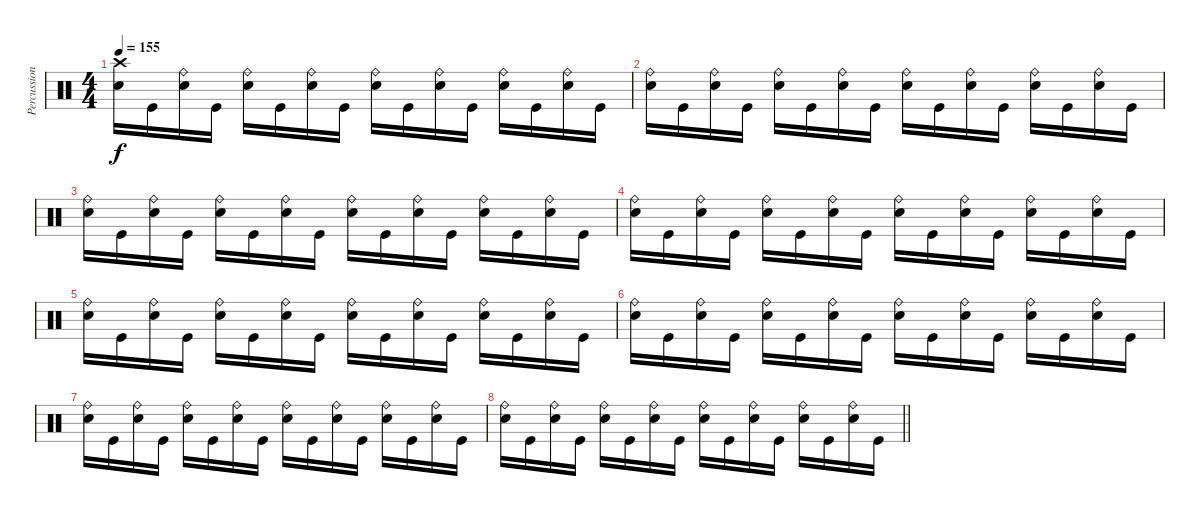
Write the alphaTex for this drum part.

\track ("Percussions" "Percussion") {instrument percussion}
\staff {score}
\articulation defaults
\ts (4 4)
\tempo 155
\clef neutral
\ks c
("Crash high (hit)" "Electric Snare (hit)").16{dy f} "Kick (hit)".16 ("Ride (bell)" "Electric Snare (hit)").16 "Kick (hit)".16 ("Ride (bell)" "Electric Snare (hit)").16 "Kick (hit)".16 ("Ride (bell)" "Electric Snare (hit)").16 "Kick (hit)".16 ("Ride (bell)" "Electric Snare (hit)").16 "Kick (hit)".16 ("Ride (bell)" "Electric Snare (hit)").16 "Kick (hit)".16 ("Ride (bell)" "Electric Snare (hit)").16 "Kick (hit)".16 ("Ride (bell)" "Electric Snare (hit)").16 "Kick (hit)".16 |
("Ride (bell)" "Electric Snare (hit)").16 "Kick (hit)".16 ("Ride (bell)" "Electric Snare (hit)").16 "Kick (hit)".16 ("Ride (bell)" "Electric Snare (hit)").16 "Kick (hit)".16 ("Ride (bell)" "Electric Snare (hit)").16 "Kick (hit)".16 ("Ride (bell)" "Electric Snare (hit)").16 "Kick (hit)".16 ("Ride (bell)" "Electric Snare (hit)").16 "Kick (hit)".16 ("Ride (bell)" "Electric Snare (hit)").16 "Kick (hit)".16 ("Ride (bell)" "Electric Snare (hit)").16 "Kick (hit)".16 |
("Ride (bell)" "Electric Snare (hit)").16 "Kick (hit)".16 ("Ride (bell)" "Electric Snare (hit)").16 "Kick (hit)".16 ("Ride (bell)" "Electric Snare (hit)").16 "Kick (hit)".16 ("Ride (bell)" "Electric Snare (hit)").16 "Kick (hit)".16 ("Ride (bell)" "Electric Snare (hit)").16 "Kick (hit)".16 ("Ride (bell)" "Electric Snare (hit)").16 "Kick (hit)".16 ("Ride (bell)" "Electric Snare (hit)").16 "Kick (hit)".16 ("Ride (bell)" "Electric Snare (hit)").16 "Kick (hit)".16 |
("Ride (bell)" "Electric Snare (hit)").16 "Kick (hit)".16 ("Ride (bell)" "Electric Snare (hit)").16 "Kick (hit)".16 ("Ride (bell)" "Electric Snare (hit)").16 "Kick (hit)".16 ("Ride (bell)" "Electric Snare (hit)").16 "Kick (hit)".16 ("Ride (bell)" "Electric Snare (hit)").16 "Kick (hit)".16 ("Ride (bell)" "Electric Snare (hit)").16 "Kick (hit)".16 ("Ride (bell)" "Electric Snare (hit)").16 "Kick (hit)".16 ("Ride (bell)" "Electric Snare (hit)").16 "Kick (hit)".16 |
("Ride (bell)" "Electric Snare (hit)").16 "Kick (hit)".16 ("Ride (bell)" "Electric Snare (hit)").16 "Kick (hit)".16 ("Ride (bell)" "Electric Snare (hit)").16 "Kick (hit)".16 ("Ride (bell)" "Electric Snare (hit)").16 "Kick (hit)".16 ("Ride (bell)" "Electric Snare (hit)").16 "Kick (hit)".16 ("Ride (bell)" "Electric Snare (hit)").16 "Kick (hit)".16 ("Ride (bell)" "Electric Snare (hit)").16 "Kick (hit)".16 ("Ride (bell)" "Electric Snare (hit)").16 "Kick (hit)".16 |
("Ride (bell)" "Electric Snare (hit)").16 "Kick (hit)".16 ("Ride (bell)" "Electric Snare (hit)").16 "Kick (hit)".16 ("Ride (bell)" "Electric Snare (hit)").16 "Kick (hit)".16 ("Ride (bell)" "Electric Snare (hit)").16 "Kick (hit)".16 ("Ride (bell)" "Electric Snare (hit)").16 "Kick (hit)".16 ("Ride (bell)" "Electric Snare (hit)").16 "Kick (hit)".16 ("Ride (bell)" "Electric Snare (hit)").16 "Kick (hit)".16 ("Ride (bell)" "Electric Snare (hit)").16 "Kick (hit)".16 |
("Ride (bell)" "Electric Snare (hit)").16 "Kick (hit)".16 ("Ride (bell)" "Electric Snare (hit)").16 "Kick (hit)".16 ("Ride (bell)" "Electric Snare (hit)").16 "Kick (hit)".16 ("Ride (bell)" "Electric Snare (hit)").16 "Kick (hit)".16 ("Ride (bell)" "Electric Snare (hit)").16 "Kick (hit)".16 ("Ride (bell)" "Electric Snare (hit)").16 "Kick (hit)".16 ("Ride (bell)" "Electric Snare (hit)").16 "Kick (hit)".16 ("Ride (bell)" "Electric Snare (hit)").16 "Kick (hit)".16 |
\barLineRight lightlight
("Ride (bell)" "Electric Snare (hit)").16 "Kick (hit)".16 ("Ride (bell)" "Electric Snare (hit)").16 "Kick (hit)".16 ("Ride (bell)" "Electric Snare (hit)").16 "Kick (hit)".16 ("Ride (bell)" "Electric Snare (hit)").16 "Kick (hit)".16 ("Ride (bell)" "Electric Snare (hit)").16 "Kick (hit)".16 ("Ride (bell)" "Electric Snare (hit)").16 "Kick (hit)".16 ("Ride (bell)" "Electric Snare (hit)").16 "Kick (hit)".16 ("Ride (bell)" "Electric Snare (hit)").16 "Kick (hit)".16
